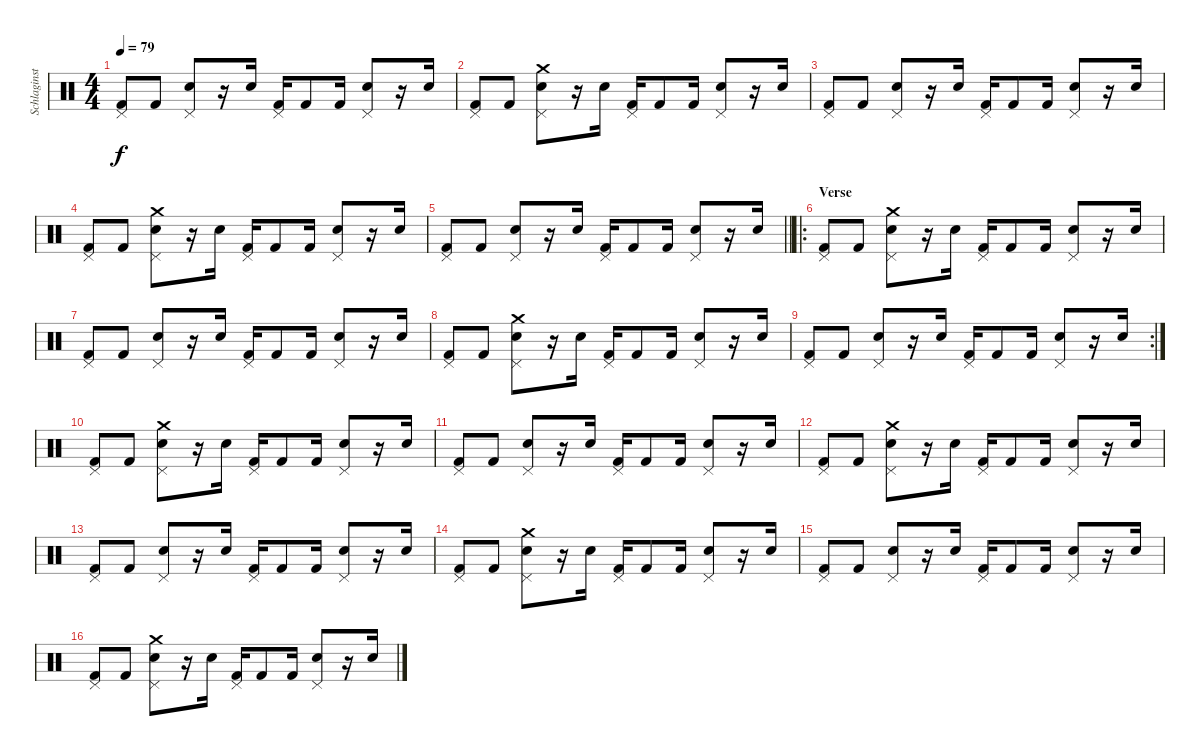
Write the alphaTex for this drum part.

\track ("Schlaginstrumente - Auswahl" "Schlaginst") {instrument percussion}
\staff {score}
\articulation defaults
\ts (4 4)
\tempo 79
\clef neutral
\ks c
("Pedal Hi-Hat (hit)" "Kick (hit) 2").8{dy f} "Kick (hit) 2".8 ("Pedal Hi-Hat (hit)" "Snare (hit) 2").8 r.16 "Snare (hit) 2".16 ("Pedal Hi-Hat (hit)" "Kick (hit) 2").16 "Kick (hit) 2".8 "Kick (hit) 2".16 ("Pedal Hi-Hat (hit)" "Snare (hit) 2").8 r.16 "Snare (hit) 2".16 |
("Pedal Hi-Hat (hit)" "Kick (hit) 2").8 "Kick (hit) 2".8 ("Pedal Hi-Hat (hit)" "Crash medium (hit)" "Snare (hit) 2").8 r.16 "Snare (hit) 2".16 ("Pedal Hi-Hat (hit)" "Kick (hit) 2").16 "Kick (hit) 2".8 "Kick (hit) 2".16 ("Pedal Hi-Hat (hit)" "Snare (hit) 2").8 r.16 "Snare (hit) 2".16 |
("Pedal Hi-Hat (hit)" "Kick (hit) 2").8 "Kick (hit) 2".8 ("Pedal Hi-Hat (hit)" "Snare (hit) 2").8 r.16 "Snare (hit) 2".16 ("Pedal Hi-Hat (hit)" "Kick (hit) 2").16 "Kick (hit) 2".8 "Kick (hit) 2".16 ("Pedal Hi-Hat (hit)" "Snare (hit) 2").8 r.16 "Snare (hit) 2".16 |
("Pedal Hi-Hat (hit)" "Kick (hit) 2").8 "Kick (hit) 2".8 ("Pedal Hi-Hat (hit)" "Crash medium (hit)" "Snare (hit) 2").8 r.16 "Snare (hit) 2".16 ("Pedal Hi-Hat (hit)" "Kick (hit) 2").16 "Kick (hit) 2".8 "Kick (hit) 2".16 ("Pedal Hi-Hat (hit)" "Snare (hit) 2").8 r.16 "Snare (hit) 2".16 |
\barLineRight lightlight
("Pedal Hi-Hat (hit)" "Kick (hit) 2").8 "Kick (hit) 2".8 ("Pedal Hi-Hat (hit)" "Snare (hit) 2").8 r.16 "Snare (hit) 2".16 ("Pedal Hi-Hat (hit)" "Kick (hit) 2").16 "Kick (hit) 2".8 "Kick (hit) 2".16 ("Pedal Hi-Hat (hit)" "Snare (hit) 2").8 r.16 "Snare (hit) 2".16 |
\ro
\section ("" "Verse")
("Pedal Hi-Hat (hit)" "Kick (hit) 2").8 "Kick (hit) 2".8 ("Pedal Hi-Hat (hit)" "Crash medium (hit)" "Snare (hit) 2").8 r.16 "Snare (hit) 2".16 ("Pedal Hi-Hat (hit)" "Kick (hit) 2").16 "Kick (hit) 2".8 "Kick (hit) 2".16 ("Pedal Hi-Hat (hit)" "Snare (hit) 2").8 r.16 "Snare (hit) 2".16 |
("Pedal Hi-Hat (hit)" "Kick (hit) 2").8 "Kick (hit) 2".8 ("Pedal Hi-Hat (hit)" "Snare (hit) 2").8 r.16 "Snare (hit) 2".16 ("Pedal Hi-Hat (hit)" "Kick (hit) 2").16 "Kick (hit) 2".8 "Kick (hit) 2".16 ("Pedal Hi-Hat (hit)" "Snare (hit) 2").8 r.16 "Snare (hit) 2".16 |
("Pedal Hi-Hat (hit)" "Kick (hit) 2").8 "Kick (hit) 2".8 ("Pedal Hi-Hat (hit)" "Crash medium (hit)" "Snare (hit) 2").8 r.16 "Snare (hit) 2".16 ("Pedal Hi-Hat (hit)" "Kick (hit) 2").16 "Kick (hit) 2".8 "Kick (hit) 2".16 ("Pedal Hi-Hat (hit)" "Snare (hit) 2").8 r.16 "Snare (hit) 2".16 |
\rc 2
("Pedal Hi-Hat (hit)" "Kick (hit) 2").8 "Kick (hit) 2".8 ("Pedal Hi-Hat (hit)" "Snare (hit) 2").8 r.16 "Snare (hit) 2".16 ("Pedal Hi-Hat (hit)" "Kick (hit) 2").16 "Kick (hit) 2".8 "Kick (hit) 2".16 ("Pedal Hi-Hat (hit)" "Snare (hit) 2").8 r.16 "Snare (hit) 2".16 |
("Pedal Hi-Hat (hit)" "Kick (hit) 2").8 "Kick (hit) 2".8 ("Pedal Hi-Hat (hit)" "Crash medium (hit)" "Snare (hit) 2").8 r.16 "Snare (hit) 2".16 ("Pedal Hi-Hat (hit)" "Kick (hit) 2").16 "Kick (hit) 2".8 "Kick (hit) 2".16 ("Pedal Hi-Hat (hit)" "Snare (hit) 2").8 r.16 "Snare (hit) 2".16 |
("Pedal Hi-Hat (hit)" "Kick (hit) 2").8 "Kick (hit) 2".8 ("Pedal Hi-Hat (hit)" "Snare (hit) 2").8 r.16 "Snare (hit) 2".16 ("Pedal Hi-Hat (hit)" "Kick (hit) 2").16 "Kick (hit) 2".8 "Kick (hit) 2".16 ("Pedal Hi-Hat (hit)" "Snare (hit) 2").8 r.16 "Snare (hit) 2".16 |
("Pedal Hi-Hat (hit)" "Kick (hit) 2").8 "Kick (hit) 2".8 ("Pedal Hi-Hat (hit)" "Crash medium (hit)" "Snare (hit) 2").8 r.16 "Snare (hit) 2".16 ("Pedal Hi-Hat (hit)" "Kick (hit) 2").16 "Kick (hit) 2".8 "Kick (hit) 2".16 ("Pedal Hi-Hat (hit)" "Snare (hit) 2").8 r.16 "Snare (hit) 2".16 |
("Pedal Hi-Hat (hit)" "Kick (hit) 2").8 "Kick (hit) 2".8 ("Pedal Hi-Hat (hit)" "Snare (hit) 2").8 r.16 "Snare (hit) 2".16 ("Pedal Hi-Hat (hit)" "Kick (hit) 2").16 "Kick (hit) 2".8 "Kick (hit) 2".16 ("Pedal Hi-Hat (hit)" "Snare (hit) 2").8 r.16 "Snare (hit) 2".16 |
("Pedal Hi-Hat (hit)" "Kick (hit) 2").8 "Kick (hit) 2".8 ("Pedal Hi-Hat (hit)" "Crash medium (hit)" "Snare (hit) 2").8 r.16 "Snare (hit) 2".16 ("Pedal Hi-Hat (hit)" "Kick (hit) 2").16 "Kick (hit) 2".8 "Kick (hit) 2".16 ("Pedal Hi-Hat (hit)" "Snare (hit) 2").8 r.16 "Snare (hit) 2".16 |
("Pedal Hi-Hat (hit)" "Kick (hit) 2").8 "Kick (hit) 2".8 ("Pedal Hi-Hat (hit)" "Snare (hit) 2").8 r.16 "Snare (hit) 2".16 ("Pedal Hi-Hat (hit)" "Kick (hit) 2").16 "Kick (hit) 2".8 "Kick (hit) 2".16 ("Pedal Hi-Hat (hit)" "Snare (hit) 2").8 r.16 "Snare (hit) 2".16 |
("Pedal Hi-Hat (hit)" "Kick (hit) 2").8 "Kick (hit) 2".8 ("Pedal Hi-Hat (hit)" "Crash medium (hit)" "Snare (hit) 2").8 r.16 "Snare (hit) 2".16 ("Pedal Hi-Hat (hit)" "Kick (hit) 2").16 "Kick (hit) 2".8 "Kick (hit) 2".16 ("Pedal Hi-Hat (hit)" "Snare (hit) 2").8 r.16 "Snare (hit) 2".16
